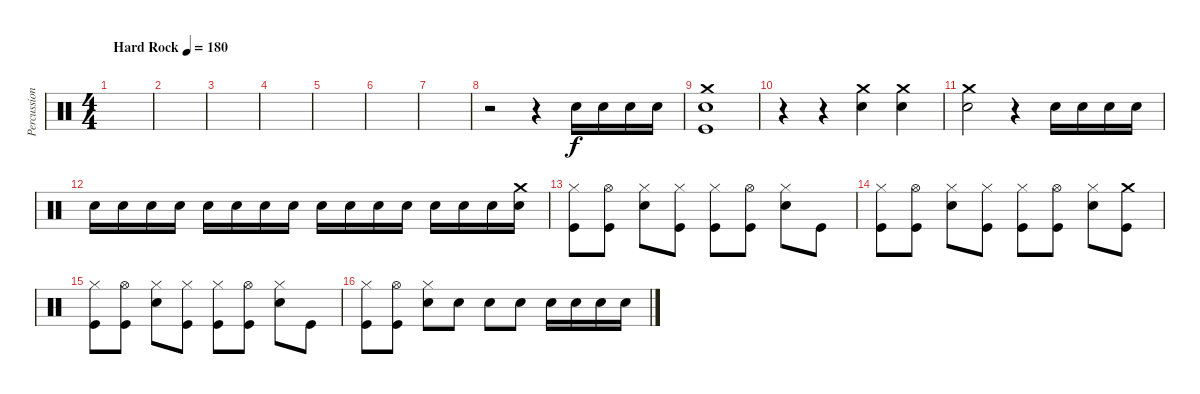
\track ("Percussion" "Percussion") {instrument percussion}
\staff {score}
\articulation defaults
\ts (4 4)
\tempo (180 "Hard Rock")
\clef neutral
\ks c
|
|
|
|
|
|
|
r.2 r.4 "Electric Snare (hit)".16 "Electric Snare (hit)".16 "Electric Snare (hit)".16 "Electric Snare (hit)".16 |
("Crash medium (hit)" "Electric Snare (hit)" "Kick (hit)").1 |
r.4 r.4 ("Crash medium (hit)" "Electric Snare (hit)").4 ("Crash medium (hit)" "Electric Snare (hit)").4 |
("Crash medium (hit)" "Electric Snare (hit)").2 r.4 "Electric Snare (hit)".16 "Electric Snare (hit)".16 "Electric Snare (hit)".16 "Electric Snare (hit)".16 |
"Electric Snare (hit)".16 "Electric Snare (hit)".16 "Electric Snare (hit)".16 "Electric Snare (hit)".16 "Electric Snare (hit)".16 "Electric Snare (hit)".16 "Electric Snare (hit)".16 "Electric Snare (hit)".16 "Electric Snare (hit)".16 "Electric Snare (hit)".16 "Electric Snare (hit)".16 "Electric Snare (hit)".16 "Electric Snare (hit)".16 "Electric Snare (hit)".16 "Electric Snare (hit)".16 ("Crash medium (hit)" "Electric Snare (hit)").16 |
("Hi-Hat (closed)" "Kick (hit)").8 ("Hi-Hat (open)" "Kick (hit)").8 ("Hi-Hat (closed)" "Electric Snare (hit)").8 ("Hi-Hat (closed)" "Kick (hit)").8 ("Hi-Hat (closed)" "Kick (hit)").8 ("Hi-Hat (open)" "Kick (hit)").8 ("Hi-Hat (closed)" "Electric Snare (hit)").8 "Kick (hit)".8 |
("Hi-Hat (closed)" "Kick (hit)").8 ("Hi-Hat (open)" "Kick (hit)").8 ("Hi-Hat (closed)" "Electric Snare (hit)").8 ("Hi-Hat (closed)" "Kick (hit)").8 ("Hi-Hat (closed)" "Kick (hit)").8 ("Hi-Hat (open)" "Kick (hit)").8 ("Hi-Hat (closed)" "Electric Snare (hit)").8 ("Crash medium (hit)" "Kick (hit)").8 |
("Hi-Hat (closed)" "Kick (hit)").8 ("Hi-Hat (open)" "Kick (hit)").8 ("Hi-Hat (closed)" "Electric Snare (hit)").8 ("Hi-Hat (closed)" "Kick (hit)").8 ("Hi-Hat (closed)" "Kick (hit)").8 ("Hi-Hat (open)" "Kick (hit)").8 ("Hi-Hat (closed)" "Electric Snare (hit)").8 "Kick (hit)".8 |
("Hi-Hat (closed)" "Kick (hit)").8 ("Hi-Hat (open)" "Kick (hit)").8 ("Hi-Hat (closed)" "Electric Snare (hit)").8 "Electric Snare (hit)".8 "Electric Snare (hit)".8 "Electric Snare (hit)".8 "Electric Snare (hit)".16 "Electric Snare (hit)".16 "Electric Snare (hit)".16 "Electric Snare (hit)".16
